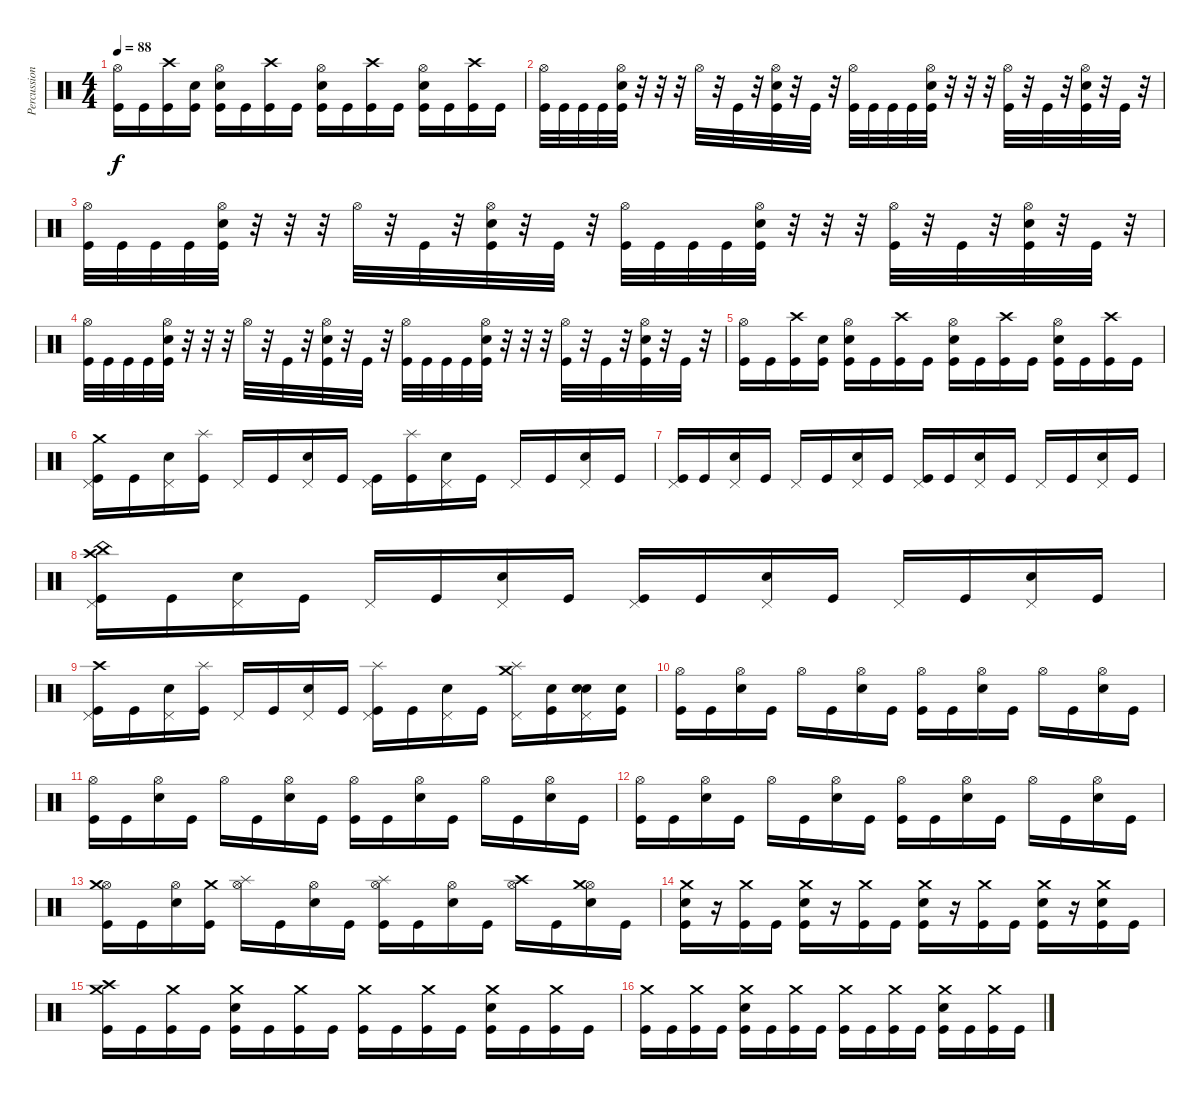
\track ("Percussion" "Percussion") {instrument percussion}
\staff {score}
\articulation defaults
\ts (4 4)
\tempo 88
\clef neutral
\ks c
("Hi-Hat (open)" "Kick (hit)").16{dy f} "Kick (hit)".16 ("Crash high (hit)" "Kick (hit)").16 ("Electric Snare (hit)" "Kick (hit)").16 ("Hi-Hat (open)" "Electric Snare (hit)" "Kick (hit)").16 "Kick (hit)".16 ("Crash high (hit)" "Kick (hit)").16 "Kick (hit)".16 ("Hi-Hat (open)" "Electric Snare (hit)" "Kick (hit)").16 "Kick (hit)".16 ("Crash high (hit)" "Kick (hit)").16 "Kick (hit)".16 ("Hi-Hat (open)" "Electric Snare (hit)" "Kick (hit)").16 "Kick (hit)".16 ("Crash high (hit)" "Kick (hit)").16 "Kick (hit)".16 |
("Hi-Hat (open)" "Kick (hit)").32 "Kick (hit)".32 "Kick (hit)".32 "Kick (hit)".32 ("Hi-Hat (open)" "Electric Snare (hit)" "Kick (hit)").32 r.32 r.32 r.32 "Hi-Hat (open)".32 r.32 "Kick (hit)".32 r.32 ("Hi-Hat (open)" "Electric Snare (hit)" "Kick (hit)").32 r.32 "Kick (hit)".32 r.32 ("Hi-Hat (open)" "Kick (hit)").32 "Kick (hit)".32 "Kick (hit)".32 "Kick (hit)".32 ("Hi-Hat (open)" "Electric Snare (hit)" "Kick (hit)").32 r.32 r.32 r.32 ("Hi-Hat (open)" "Kick (hit)").32 r.32 "Kick (hit)".32 r.32 ("Hi-Hat (open)" "Electric Snare (hit)" "Kick (hit)").32 r.32 "Kick (hit)".32 r.32 |
("Hi-Hat (open)" "Kick (hit)").32 "Kick (hit)".32 "Kick (hit)".32 "Kick (hit)".32 ("Hi-Hat (open)" "Electric Snare (hit)" "Kick (hit)").32 r.32 r.32 r.32 "Hi-Hat (open)".32 r.32 "Kick (hit)".32 r.32 ("Hi-Hat (open)" "Electric Snare (hit)" "Kick (hit)").32 r.32 "Kick (hit)".32 r.32 ("Hi-Hat (open)" "Kick (hit)").32 "Kick (hit)".32 "Kick (hit)".32 "Kick (hit)".32 ("Hi-Hat (open)" "Electric Snare (hit)" "Kick (hit)").32 r.32 r.32 r.32 ("Hi-Hat (open)" "Kick (hit)").32 r.32 "Kick (hit)".32 r.32 ("Hi-Hat (open)" "Electric Snare (hit)" "Kick (hit)").32 r.32 "Kick (hit)".32 r.32 |
("Hi-Hat (open)" "Kick (hit)").32 "Kick (hit)".32 "Kick (hit)".32 "Kick (hit)".32 ("Hi-Hat (open)" "Electric Snare (hit)" "Kick (hit)").32 r.32 r.32 r.32 "Hi-Hat (open)".32 r.32 "Kick (hit)".32 r.32 ("Hi-Hat (open)" "Electric Snare (hit)" "Kick (hit)").32 r.32 "Kick (hit)".32 r.32 ("Hi-Hat (open)" "Kick (hit)").32 "Kick (hit)".32 "Kick (hit)".32 "Kick (hit)".32 ("Hi-Hat (open)" "Electric Snare (hit)" "Kick (hit)").32 r.32 r.32 r.32 ("Hi-Hat (open)" "Kick (hit)").32 r.32 "Kick (hit)".32 r.32 ("Hi-Hat (open)" "Electric Snare (hit)" "Kick (hit)").32 r.32 "Kick (hit)".32 r.32 |
("Hi-Hat (open)" "Kick (hit)").16 "Kick (hit)".16 ("Crash high (hit)" "Kick (hit)").16 ("Electric Snare (hit)" "Kick (hit)").16 ("Hi-Hat (open)" "Electric Snare (hit)" "Kick (hit)").16 "Kick (hit)".16 ("Crash high (hit)" "Kick (hit)").16 "Kick (hit)".16 ("Hi-Hat (open)" "Electric Snare (hit)" "Kick (hit)").16 "Kick (hit)".16 ("Crash high (hit)" "Kick (hit)").16 "Kick (hit)".16 ("Hi-Hat (open)" "Electric Snare (hit)" "Kick (hit)").16 "Kick (hit)".16 ("Crash high (hit)" "Kick (hit)").16 "Kick (hit)".16 |
("Pedal Hi-Hat (hit)" "Crash medium (hit)" "Kick (hit)").16 "Kick (hit)".16 ("Pedal Hi-Hat (hit)" "Electric Snare (hit)").16 ("Splash (hit)" "Kick (hit)").16 "Pedal Hi-Hat (hit)".16 "Kick (hit)".16 ("Pedal Hi-Hat (hit)" "Electric Snare (hit)").16 "Kick (hit)".16 ("Pedal Hi-Hat (hit)" "Kick (hit)").16 ("Splash (hit)" "Kick (hit)").16 ("Pedal Hi-Hat (hit)" "Electric Snare (hit)").16 "Kick (hit)".16 "Pedal Hi-Hat (hit)".16 "Kick (hit)".16 ("Pedal Hi-Hat (hit)" "Electric Snare (hit)").16 "Kick (hit)".16 |
("Pedal Hi-Hat (hit)" "Kick (hit)").16 "Kick (hit)".16 ("Pedal Hi-Hat (hit)" "Electric Snare (hit)").16 "Kick (hit)".16 "Pedal Hi-Hat (hit)".16 "Kick (hit)".16 ("Pedal Hi-Hat (hit)" "Electric Snare (hit)").16 "Kick (hit)".16 ("Pedal Hi-Hat (hit)" "Kick (hit)").16 "Kick (hit)".16 ("Pedal Hi-Hat (hit)" "Electric Snare (hit)").16 "Kick (hit)".16 "Pedal Hi-Hat (hit)".16 "Kick (hit)".16 ("Pedal Hi-Hat (hit)" "Electric Snare (hit)").16 "Kick (hit)".16 |
("Pedal Hi-Hat (hit)" "Crash high (hit)" "China (hit)" "Kick (hit)").16 "Kick (hit)".16 ("Pedal Hi-Hat (hit)" "Electric Snare (hit)").16 "Kick (hit)".16 "Pedal Hi-Hat (hit)".16 "Kick (hit)".16 ("Pedal Hi-Hat (hit)" "Electric Snare (hit)").16 "Kick (hit)".16 ("Pedal Hi-Hat (hit)" "Kick (hit)").16 "Kick (hit)".16 ("Pedal Hi-Hat (hit)" "Electric Snare (hit)").16 "Kick (hit)".16 "Pedal Hi-Hat (hit)".16 "Kick (hit)".16 ("Pedal Hi-Hat (hit)" "Electric Snare (hit)").16 "Kick (hit)".16 |
("Pedal Hi-Hat (hit)" "Crash high (hit)" "Kick (hit)").16 "Kick (hit)".16 ("Pedal Hi-Hat (hit)" "Electric Snare (hit)").16 ("Splash (hit)" "Kick (hit)").16 "Pedal Hi-Hat (hit)".16 "Kick (hit)".16 ("Pedal Hi-Hat (hit)" "Electric Snare (hit)").16 "Kick (hit)".16 ("Pedal Hi-Hat (hit)" "Splash (hit)" "Kick (hit)").16 "Kick (hit)".16 ("Pedal Hi-Hat (hit)" "Electric Snare (hit)").16 "Kick (hit)".16 ("Pedal Hi-Hat (hit)" "Splash (hit)" "Crash medium (hit)").16 ("Electric Snare (hit)" "Kick (hit)").16 ("Pedal Hi-Hat (hit)" "Electric Snare (hit)" "Electric Snare (hit)").16 ("Electric Snare (hit)" "Kick (hit)").16 |
("Hi-Hat (open)" "Kick (hit)").16 "Kick (hit)".16 ("Hi-Hat (open)" "Electric Snare (hit)").16 "Kick (hit)".16 "Hi-Hat (open)".16 "Kick (hit)".16 ("Hi-Hat (open)" "Electric Snare (hit)").16 "Kick (hit)".16 ("Hi-Hat (open)" "Kick (hit)").16 "Kick (hit)".16 ("Hi-Hat (open)" "Electric Snare (hit)").16 "Kick (hit)".16 "Hi-Hat (open)".16 "Kick (hit)".16 ("Hi-Hat (open)" "Electric Snare (hit)").16 "Kick (hit)".16 |
("Hi-Hat (open)" "Kick (hit)").16 "Kick (hit)".16 ("Hi-Hat (open)" "Electric Snare (hit)").16 "Kick (hit)".16 "Hi-Hat (open)".16 "Kick (hit)".16 ("Hi-Hat (open)" "Electric Snare (hit)").16 "Kick (hit)".16 ("Hi-Hat (open)" "Kick (hit)").16 "Kick (hit)".16 ("Hi-Hat (open)" "Electric Snare (hit)").16 "Kick (hit)".16 "Hi-Hat (open)".16 "Kick (hit)".16 ("Hi-Hat (open)" "Electric Snare (hit)").16 "Kick (hit)".16 |
("Hi-Hat (open)" "Kick (hit)").16 "Kick (hit)".16 ("Hi-Hat (open)" "Electric Snare (hit)").16 "Kick (hit)".16 "Hi-Hat (open)".16 "Kick (hit)".16 ("Hi-Hat (open)" "Electric Snare (hit)").16 "Kick (hit)".16 ("Hi-Hat (open)" "Kick (hit)").16 "Kick (hit)".16 ("Hi-Hat (open)" "Electric Snare (hit)").16 "Kick (hit)".16 "Hi-Hat (open)".16 "Kick (hit)".16 ("Hi-Hat (open)" "Electric Snare (hit)").16 "Kick (hit)".16 |
("Hi-Hat (open)" "Crash medium (hit)" "Kick (hit)").16 "Kick (hit)".16 ("Hi-Hat (open)" "Electric Snare (hit)").16 ("Crash medium (hit)" "Kick (hit)").16 ("Hi-Hat (open)" "Splash (hit)").16 "Kick (hit)".16 ("Hi-Hat (open)" "Electric Snare (hit)").16 "Kick (hit)".16 ("Hi-Hat (open)" "Splash (hit)" "Kick (hit)").16 "Kick (hit)".16 ("Hi-Hat (open)" "Electric Snare (hit)").16 "Kick (hit)".16 ("Hi-Hat (open)" "Crash high (hit)").16 "Kick (hit)".16 ("Hi-Hat (open)" "Crash medium (hit)" "Electric Snare (hit)").16 "Kick (hit)".16 |
("Crash medium (hit)" "Electric Snare (hit)" "Kick (hit)").16 r.16 ("Crash medium (hit)" "Kick (hit)").16 "Kick (hit)".16 ("Crash medium (hit)" "Electric Snare (hit)" "Kick (hit)").16 r.16 ("Crash medium (hit)" "Kick (hit)").16 "Kick (hit)".16 ("Crash medium (hit)" "Electric Snare (hit)" "Kick (hit)").16 r.16 ("Crash medium (hit)" "Kick (hit)").16 "Kick (hit)".16 ("Crash medium (hit)" "Electric Snare (hit)" "Kick (hit)").16 r.16 ("Crash medium (hit)" "Electric Snare (hit)" "Kick (hit)").16 "Kick (hit)".16 |
("Crash medium (hit)" "Crash high (hit)" "Kick (hit)").16 "Kick (hit)".16 ("Crash medium (hit)" "Kick (hit)").16 "Kick (hit)".16 ("Crash medium (hit)" "Electric Snare (hit)" "Kick (hit)").16 "Kick (hit)".16 ("Crash medium (hit)" "Kick (hit)").16 "Kick (hit)".16 ("Crash medium (hit)" "Kick (hit)").16 "Kick (hit)".16 ("Crash medium (hit)" "Kick (hit)").16 "Kick (hit)".16 ("Crash medium (hit)" "Electric Snare (hit)" "Kick (hit)").16 "Kick (hit)".16 ("Crash medium (hit)" "Kick (hit)").16 "Kick (hit)".16 |
("Crash medium (hit)" "Kick (hit)").16 "Kick (hit)".16 ("Crash medium (hit)" "Kick (hit)").16 "Kick (hit)".16 ("Crash medium (hit)" "Electric Snare (hit)" "Kick (hit)").16 "Kick (hit)".16 ("Crash medium (hit)" "Kick (hit)").16 "Kick (hit)".16 ("Crash medium (hit)" "Kick (hit)").16 "Kick (hit)".16 ("Crash medium (hit)" "Kick (hit)").16 "Kick (hit)".16 ("Crash medium (hit)" "Electric Snare (hit)" "Kick (hit)").16 "Kick (hit)".16 ("Crash medium (hit)" "Kick (hit)").16 "Kick (hit)".16
